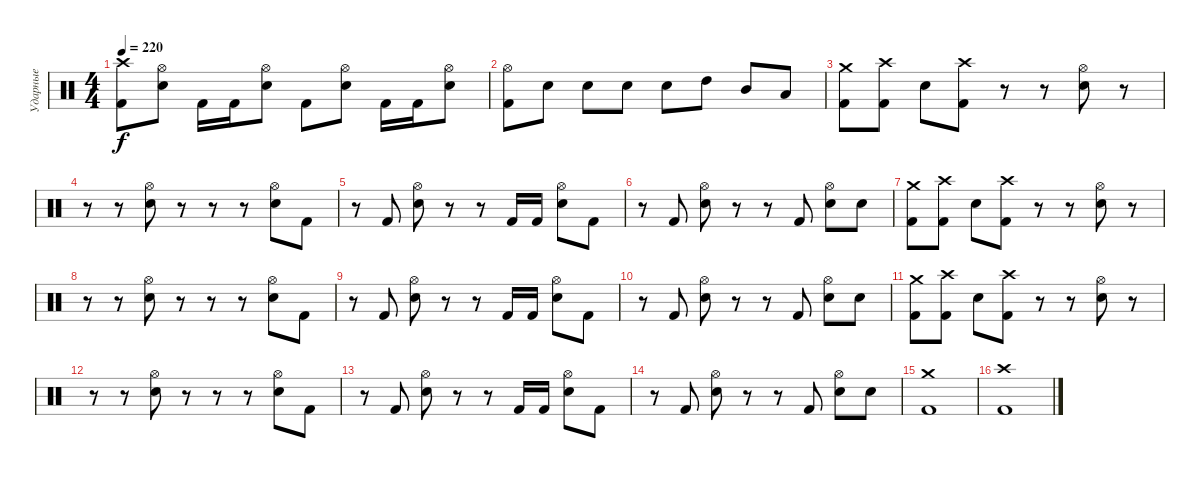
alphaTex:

\track ("Ударные" "Ударные") {instrument percussion}
\staff {score}
\articulation defaults
\ts (4 4)
\tempo 220
\clef neutral
\ks c
("Crash high (hit)" "Kick (hit) 2").8{dy f} ("Hi-Hat (open)" "Electric Snare (hit)").8 "Kick (hit) 2".16 "Kick (hit) 2".16 ("Hi-Hat (open)" "Electric Snare (hit)").8 "Kick (hit) 2".8 ("Hi-Hat (open)" "Electric Snare (hit)").8 "Kick (hit) 2".16 "Kick (hit) 2".16 ("Hi-Hat (open)" "Electric Snare (hit)").8 |
("Hi-Hat (open)" "Kick (hit) 2").8 "Electric Snare (hit)".8 "Electric Snare (hit)".8 "Electric Snare (hit)".8 "Electric Snare (hit)".8 "High Tom (hit)".8 "Mid Tom (hit)".8 "Low Floor Tom (hit)".8 |
("Crash medium (hit)" "Kick (hit) 2").8 ("Crash high (hit)" "Kick (hit) 2").8 "Electric Snare (hit)".8 ("Crash high (hit)" "Kick (hit) 2").8 r.8 r.8 ("Hi-Hat (open)" "Electric Snare (hit)").8 r.8 |
r.8 r.8 ("Hi-Hat (open)" "Electric Snare (hit)").8 r.8 r.8 r.8 ("Hi-Hat (open)" "Electric Snare (hit)").8 "Kick (hit) 2".8 |
r.8 "Kick (hit) 2".8 ("Hi-Hat (open)" "Electric Snare (hit)").8 r.8 r.8 "Kick (hit) 2".16 "Kick (hit) 2".16 ("Hi-Hat (open)" "Electric Snare (hit)").8 "Kick (hit) 2".8 |
r.8 "Kick (hit) 2".8 ("Hi-Hat (open)" "Electric Snare (hit)").8 r.8 r.8 "Kick (hit) 2".8 ("Hi-Hat (open)" "Electric Snare (hit)").8 "Electric Snare (hit)".8 |
("Crash medium (hit)" "Kick (hit) 2").8 ("Crash high (hit)" "Kick (hit) 2").8 "Electric Snare (hit)".8 ("Crash high (hit)" "Kick (hit) 2").8 r.8 r.8 ("Hi-Hat (open)" "Electric Snare (hit)").8 r.8 |
r.8 r.8 ("Hi-Hat (open)" "Electric Snare (hit)").8 r.8 r.8 r.8 ("Hi-Hat (open)" "Electric Snare (hit)").8 "Kick (hit) 2".8 |
r.8 "Kick (hit) 2".8 ("Hi-Hat (open)" "Electric Snare (hit)").8 r.8 r.8 "Kick (hit) 2".16 "Kick (hit) 2".16 ("Hi-Hat (open)" "Electric Snare (hit)").8 "Kick (hit) 2".8 |
r.8 "Kick (hit) 2".8 ("Hi-Hat (open)" "Electric Snare (hit)").8 r.8 r.8 "Kick (hit) 2".8 ("Hi-Hat (open)" "Electric Snare (hit)").8 "Electric Snare (hit)".8 |
("Crash medium (hit)" "Kick (hit) 2").8 ("Crash high (hit)" "Kick (hit) 2").8 "Electric Snare (hit)".8 ("Crash high (hit)" "Kick (hit) 2").8 r.8 r.8 ("Hi-Hat (open)" "Electric Snare (hit)").8 r.8 |
r.8 r.8 ("Hi-Hat (open)" "Electric Snare (hit)").8 r.8 r.8 r.8 ("Hi-Hat (open)" "Electric Snare (hit)").8 "Kick (hit) 2".8 |
r.8 "Kick (hit) 2".8 ("Hi-Hat (open)" "Electric Snare (hit)").8 r.8 r.8 "Kick (hit) 2".16 "Kick (hit) 2".16 ("Hi-Hat (open)" "Electric Snare (hit)").8 "Kick (hit) 2".8 |
r.8 "Kick (hit) 2".8 ("Hi-Hat (open)" "Electric Snare (hit)").8 r.8 r.8 "Kick (hit) 2".8 ("Hi-Hat (open)" "Electric Snare (hit)").8 "Electric Snare (hit)".8 |
("Crash medium (hit)" "Kick (hit) 2").1 |
("Crash high (hit)" "Kick (hit) 2").1
